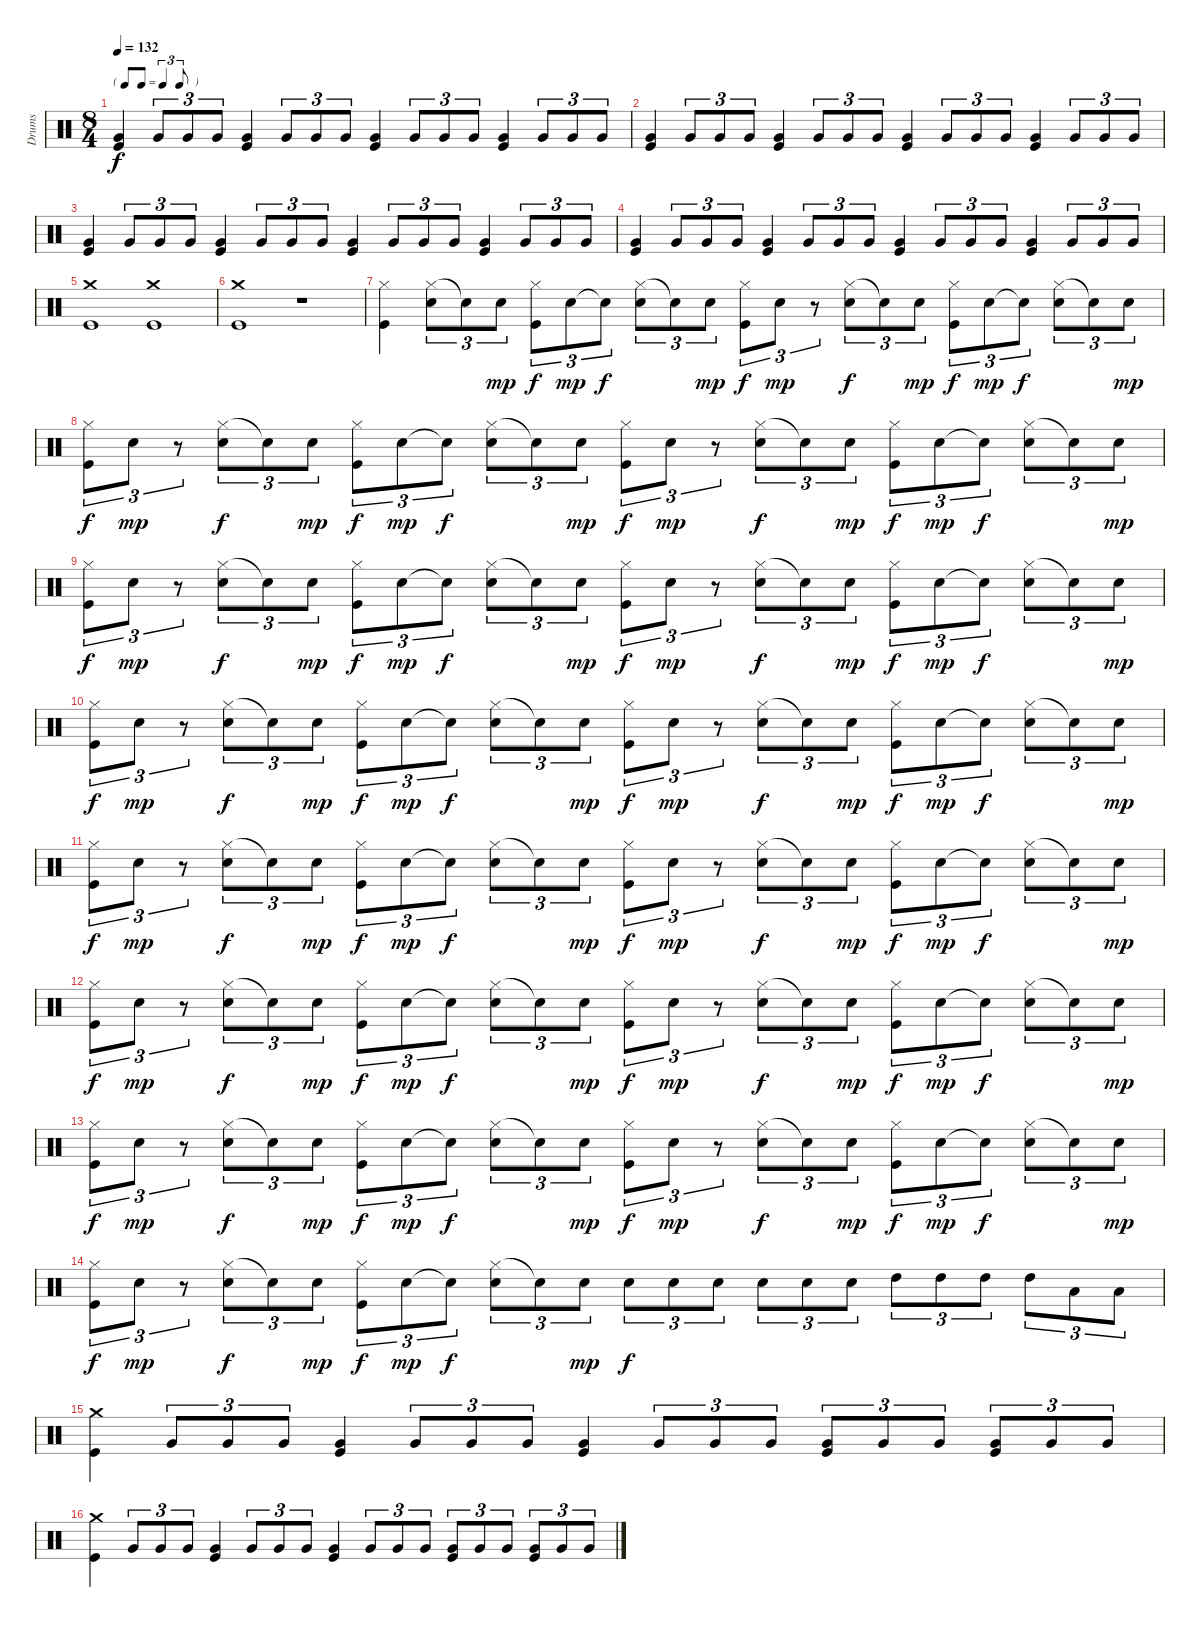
\track ("Drums" "Drums") {instrument percussion}
\staff {score}
\articulation defaults
\ts (8 4)
\tf triplet8th
\tempo 132
\clef neutral
\ks c
("Very Low Tom (hit)" "Kick (hit)").4{dy f} "Very Low Tom (hit)".8{tu (3 2)} "Very Low Tom (hit)".8{tu (3 2)} "Very Low Tom (hit)".8{tu (3 2)} ("Very Low Tom (hit)" "Kick (hit)").4 "Very Low Tom (hit)".8{tu (3 2)} "Very Low Tom (hit)".8{tu (3 2)} "Very Low Tom (hit)".8{tu (3 2)} ("Very Low Tom (hit)" "Kick (hit)").4 "Very Low Tom (hit)".8{tu (3 2)} "Very Low Tom (hit)".8{tu (3 2)} "Very Low Tom (hit)".8{tu (3 2)} ("Very Low Tom (hit)" "Kick (hit)").4 "Very Low Tom (hit)".8{tu (3 2)} "Very Low Tom (hit)".8{tu (3 2)} "Very Low Tom (hit)".8{tu (3 2)} |
("Very Low Tom (hit)" "Kick (hit)").4 "Very Low Tom (hit)".8{tu (3 2)} "Very Low Tom (hit)".8{tu (3 2)} "Very Low Tom (hit)".8{tu (3 2)} ("Very Low Tom (hit)" "Kick (hit)").4 "Very Low Tom (hit)".8{tu (3 2)} "Very Low Tom (hit)".8{tu (3 2)} "Very Low Tom (hit)".8{tu (3 2)} ("Very Low Tom (hit)" "Kick (hit)").4 "Very Low Tom (hit)".8{tu (3 2)} "Very Low Tom (hit)".8{tu (3 2)} "Very Low Tom (hit)".8{tu (3 2)} ("Very Low Tom (hit)" "Kick (hit)").4 "Very Low Tom (hit)".8{tu (3 2)} "Very Low Tom (hit)".8{tu (3 2)} "Very Low Tom (hit)".8{tu (3 2)} |
("Very Low Tom (hit)" "Kick (hit)").4 "Very Low Tom (hit)".8{tu (3 2)} "Very Low Tom (hit)".8{tu (3 2)} "Very Low Tom (hit)".8{tu (3 2)} ("Very Low Tom (hit)" "Kick (hit)").4 "Very Low Tom (hit)".8{tu (3 2)} "Very Low Tom (hit)".8{tu (3 2)} "Very Low Tom (hit)".8{tu (3 2)} ("Very Low Tom (hit)" "Kick (hit)").4 "Very Low Tom (hit)".8{tu (3 2)} "Very Low Tom (hit)".8{tu (3 2)} "Very Low Tom (hit)".8{tu (3 2)} ("Very Low Tom (hit)" "Kick (hit)").4 "Very Low Tom (hit)".8{tu (3 2)} "Very Low Tom (hit)".8{tu (3 2)} "Very Low Tom (hit)".8{tu (3 2)} |
("Very Low Tom (hit)" "Kick (hit)").4 "Very Low Tom (hit)".8{tu (3 2)} "Very Low Tom (hit)".8{tu (3 2)} "Very Low Tom (hit)".8{tu (3 2)} ("Very Low Tom (hit)" "Kick (hit)").4 "Very Low Tom (hit)".8{tu (3 2)} "Very Low Tom (hit)".8{tu (3 2)} "Very Low Tom (hit)".8{tu (3 2)} ("Very Low Tom (hit)" "Kick (hit)").4 "Very Low Tom (hit)".8{tu (3 2)} "Very Low Tom (hit)".8{tu (3 2)} "Very Low Tom (hit)".8{tu (3 2)} ("Very Low Tom (hit)" "Kick (hit)").4 "Very Low Tom (hit)".8{tu (3 2)} "Very Low Tom (hit)".8{tu (3 2)} "Very Low Tom (hit)".8{tu (3 2)} |
("Crash medium (hit)" "Kick (hit)").1 ("Crash medium (hit)" "Kick (hit)").1 |
("Crash medium (hit)" "Kick (hit)").1 r.1 |
("Hi-Hat (closed)" "Kick (hit)").4 ("Hi-Hat (closed)" "Electric Snare (hit)").8{tu (3 2)} "Snare (hit)"{t}.8{tu (3 2)} "Electric Snare (hit)".8{tu (3 2) dy mp} ("Hi-Hat (closed)" "Kick (hit)").8{tu (3 2) dy f} "Electric Snare (hit)".8{tu (3 2) dy mp} "Snare (hit)"{t}.8{tu (3 2) dy f} ("Hi-Hat (closed)" "Electric Snare (hit)").8{tu (3 2)} "Snare (hit)"{t}.8{tu (3 2)} "Electric Snare (hit)".8{tu (3 2) dy mp} ("Hi-Hat (closed)" "Kick (hit)").8{tu (3 2) dy f} "Electric Snare (hit)".8{tu (3 2) dy mp} r.8{tu (3 2)} ("Hi-Hat (closed)" "Electric Snare (hit)").8{tu (3 2) dy f} "Snare (hit)"{t}.8{tu (3 2)} "Electric Snare (hit)".8{tu (3 2) dy mp} ("Hi-Hat (closed)" "Kick (hit)").8{tu (3 2) dy f} "Electric Snare (hit)".8{tu (3 2) dy mp} "Snare (hit)"{t}.8{tu (3 2) dy f} ("Hi-Hat (closed)" "Electric Snare (hit)").8{tu (3 2)} "Snare (hit)"{t}.8{tu (3 2)} "Electric Snare (hit)".8{tu (3 2) dy mp} |
("Hi-Hat (closed)" "Kick (hit)").8{tu (3 2) dy f} "Electric Snare (hit)".8{tu (3 2) dy mp} r.8{tu (3 2)} ("Hi-Hat (closed)" "Electric Snare (hit)").8{tu (3 2) dy f} "Snare (hit)"{t}.8{tu (3 2)} "Electric Snare (hit)".8{tu (3 2) dy mp} ("Hi-Hat (closed)" "Kick (hit)").8{tu (3 2) dy f} "Electric Snare (hit)".8{tu (3 2) dy mp} "Snare (hit)"{t}.8{tu (3 2) dy f} ("Hi-Hat (closed)" "Electric Snare (hit)").8{tu (3 2)} "Snare (hit)"{t}.8{tu (3 2)} "Electric Snare (hit)".8{tu (3 2) dy mp} ("Hi-Hat (closed)" "Kick (hit)").8{tu (3 2) dy f} "Electric Snare (hit)".8{tu (3 2) dy mp} r.8{tu (3 2)} ("Hi-Hat (closed)" "Electric Snare (hit)").8{tu (3 2) dy f} "Snare (hit)"{t}.8{tu (3 2)} "Electric Snare (hit)".8{tu (3 2) dy mp} ("Hi-Hat (closed)" "Kick (hit)").8{tu (3 2) dy f} "Electric Snare (hit)".8{tu (3 2) dy mp} "Snare (hit)"{t}.8{tu (3 2) dy f} ("Hi-Hat (closed)" "Electric Snare (hit)").8{tu (3 2)} "Snare (hit)"{t}.8{tu (3 2)} "Electric Snare (hit)".8{tu (3 2) dy mp} |
("Hi-Hat (closed)" "Kick (hit)").8{tu (3 2) dy f} "Electric Snare (hit)".8{tu (3 2) dy mp} r.8{tu (3 2)} ("Hi-Hat (closed)" "Electric Snare (hit)").8{tu (3 2) dy f} "Snare (hit)"{t}.8{tu (3 2)} "Electric Snare (hit)".8{tu (3 2) dy mp} ("Hi-Hat (closed)" "Kick (hit)").8{tu (3 2) dy f} "Electric Snare (hit)".8{tu (3 2) dy mp} "Snare (hit)"{t}.8{tu (3 2) dy f} ("Hi-Hat (closed)" "Electric Snare (hit)").8{tu (3 2)} "Snare (hit)"{t}.8{tu (3 2)} "Electric Snare (hit)".8{tu (3 2) dy mp} ("Hi-Hat (closed)" "Kick (hit)").8{tu (3 2) dy f} "Electric Snare (hit)".8{tu (3 2) dy mp} r.8{tu (3 2)} ("Hi-Hat (closed)" "Electric Snare (hit)").8{tu (3 2) dy f} "Snare (hit)"{t}.8{tu (3 2)} "Electric Snare (hit)".8{tu (3 2) dy mp} ("Hi-Hat (closed)" "Kick (hit)").8{tu (3 2) dy f} "Electric Snare (hit)".8{tu (3 2) dy mp} "Snare (hit)"{t}.8{tu (3 2) dy f} ("Hi-Hat (closed)" "Electric Snare (hit)").8{tu (3 2)} "Snare (hit)"{t}.8{tu (3 2)} "Electric Snare (hit)".8{tu (3 2) dy mp} |
("Hi-Hat (closed)" "Kick (hit)").8{tu (3 2) dy f} "Electric Snare (hit)".8{tu (3 2) dy mp} r.8{tu (3 2)} ("Hi-Hat (closed)" "Electric Snare (hit)").8{tu (3 2) dy f} "Snare (hit)"{t}.8{tu (3 2)} "Electric Snare (hit)".8{tu (3 2) dy mp} ("Hi-Hat (closed)" "Kick (hit)").8{tu (3 2) dy f} "Electric Snare (hit)".8{tu (3 2) dy mp} "Snare (hit)"{t}.8{tu (3 2) dy f} ("Hi-Hat (closed)" "Electric Snare (hit)").8{tu (3 2)} "Snare (hit)"{t}.8{tu (3 2)} "Electric Snare (hit)".8{tu (3 2) dy mp} ("Hi-Hat (closed)" "Kick (hit)").8{tu (3 2) dy f} "Electric Snare (hit)".8{tu (3 2) dy mp} r.8{tu (3 2)} ("Hi-Hat (closed)" "Electric Snare (hit)").8{tu (3 2) dy f} "Snare (hit)"{t}.8{tu (3 2)} "Electric Snare (hit)".8{tu (3 2) dy mp} ("Hi-Hat (closed)" "Kick (hit)").8{tu (3 2) dy f} "Electric Snare (hit)".8{tu (3 2) dy mp} "Snare (hit)"{t}.8{tu (3 2) dy f} ("Hi-Hat (closed)" "Electric Snare (hit)").8{tu (3 2)} "Snare (hit)"{t}.8{tu (3 2)} "Electric Snare (hit)".8{tu (3 2) dy mp} |
("Hi-Hat (closed)" "Kick (hit)").8{tu (3 2) dy f} "Electric Snare (hit)".8{tu (3 2) dy mp} r.8{tu (3 2)} ("Hi-Hat (closed)" "Electric Snare (hit)").8{tu (3 2) dy f} "Snare (hit)"{t}.8{tu (3 2)} "Electric Snare (hit)".8{tu (3 2) dy mp} ("Hi-Hat (closed)" "Kick (hit)").8{tu (3 2) dy f} "Electric Snare (hit)".8{tu (3 2) dy mp} "Snare (hit)"{t}.8{tu (3 2) dy f} ("Hi-Hat (closed)" "Electric Snare (hit)").8{tu (3 2)} "Snare (hit)"{t}.8{tu (3 2)} "Electric Snare (hit)".8{tu (3 2) dy mp} ("Hi-Hat (closed)" "Kick (hit)").8{tu (3 2) dy f} "Electric Snare (hit)".8{tu (3 2) dy mp} r.8{tu (3 2)} ("Hi-Hat (closed)" "Electric Snare (hit)").8{tu (3 2) dy f} "Snare (hit)"{t}.8{tu (3 2)} "Electric Snare (hit)".8{tu (3 2) dy mp} ("Hi-Hat (closed)" "Kick (hit)").8{tu (3 2) dy f} "Electric Snare (hit)".8{tu (3 2) dy mp} "Snare (hit)"{t}.8{tu (3 2) dy f} ("Hi-Hat (closed)" "Electric Snare (hit)").8{tu (3 2)} "Snare (hit)"{t}.8{tu (3 2)} "Electric Snare (hit)".8{tu (3 2) dy mp} |
("Hi-Hat (closed)" "Kick (hit)").8{tu (3 2) dy f} "Electric Snare (hit)".8{tu (3 2) dy mp} r.8{tu (3 2)} ("Hi-Hat (closed)" "Electric Snare (hit)").8{tu (3 2) dy f} "Snare (hit)"{t}.8{tu (3 2)} "Electric Snare (hit)".8{tu (3 2) dy mp} ("Hi-Hat (closed)" "Kick (hit)").8{tu (3 2) dy f} "Electric Snare (hit)".8{tu (3 2) dy mp} "Snare (hit)"{t}.8{tu (3 2) dy f} ("Hi-Hat (closed)" "Electric Snare (hit)").8{tu (3 2)} "Snare (hit)"{t}.8{tu (3 2)} "Electric Snare (hit)".8{tu (3 2) dy mp} ("Hi-Hat (closed)" "Kick (hit)").8{tu (3 2) dy f} "Electric Snare (hit)".8{tu (3 2) dy mp} r.8{tu (3 2)} ("Hi-Hat (closed)" "Electric Snare (hit)").8{tu (3 2) dy f} "Snare (hit)"{t}.8{tu (3 2)} "Electric Snare (hit)".8{tu (3 2) dy mp} ("Hi-Hat (closed)" "Kick (hit)").8{tu (3 2) dy f} "Electric Snare (hit)".8{tu (3 2) dy mp} "Snare (hit)"{t}.8{tu (3 2) dy f} ("Hi-Hat (closed)" "Electric Snare (hit)").8{tu (3 2)} "Snare (hit)"{t}.8{tu (3 2)} "Electric Snare (hit)".8{tu (3 2) dy mp} |
("Hi-Hat (closed)" "Kick (hit)").8{tu (3 2) dy f} "Electric Snare (hit)".8{tu (3 2) dy mp} r.8{tu (3 2)} ("Hi-Hat (closed)" "Electric Snare (hit)").8{tu (3 2) dy f} "Snare (hit)"{t}.8{tu (3 2)} "Electric Snare (hit)".8{tu (3 2) dy mp} ("Hi-Hat (closed)" "Kick (hit)").8{tu (3 2) dy f} "Electric Snare (hit)".8{tu (3 2) dy mp} "Snare (hit)"{t}.8{tu (3 2) dy f} ("Hi-Hat (closed)" "Electric Snare (hit)").8{tu (3 2)} "Snare (hit)"{t}.8{tu (3 2)} "Electric Snare (hit)".8{tu (3 2) dy mp} ("Hi-Hat (closed)" "Kick (hit)").8{tu (3 2) dy f} "Electric Snare (hit)".8{tu (3 2) dy mp} r.8{tu (3 2)} ("Hi-Hat (closed)" "Electric Snare (hit)").8{tu (3 2) dy f} "Snare (hit)"{t}.8{tu (3 2)} "Electric Snare (hit)".8{tu (3 2) dy mp} ("Hi-Hat (closed)" "Kick (hit)").8{tu (3 2) dy f} "Electric Snare (hit)".8{tu (3 2) dy mp} "Snare (hit)"{t}.8{tu (3 2) dy f} ("Hi-Hat (closed)" "Electric Snare (hit)").8{tu (3 2)} "Snare (hit)"{t}.8{tu (3 2)} "Electric Snare (hit)".8{tu (3 2) dy mp} |
("Hi-Hat (closed)" "Kick (hit)").8{tu (3 2) dy f} "Electric Snare (hit)".8{tu (3 2) dy mp} r.8{tu (3 2)} ("Hi-Hat (closed)" "Electric Snare (hit)").8{tu (3 2) dy f} "Snare (hit)"{t}.8{tu (3 2)} "Electric Snare (hit)".8{tu (3 2) dy mp} ("Hi-Hat (closed)" "Kick (hit)").8{tu (3 2) dy f} "Electric Snare (hit)".8{tu (3 2) dy mp} "Snare (hit)"{t}.8{tu (3 2) dy f} ("Hi-Hat (closed)" "Electric Snare (hit)").8{tu (3 2)} "Snare (hit)"{t}.8{tu (3 2)} "Electric Snare (hit)".8{tu (3 2) dy mp} "Electric Snare (hit)".8{tu (3 2) dy f} "Electric Snare (hit)".8{tu (3 2)} "Electric Snare (hit)".8{tu (3 2)} "Electric Snare (hit)".8{tu (3 2)} "Electric Snare (hit)".8{tu (3 2)} "Electric Snare (hit)".8{tu (3 2)} "High Tom (hit)".8{tu (3 2)} "High Tom (hit)".8{tu (3 2)} "High Tom (hit)".8{tu (3 2)} "High Tom (hit)".8{tu (3 2)} "Low Tom (hit)".8{tu (3 2)} "Low Tom (hit)".8{tu (3 2)} |
("Crash medium (hit)" "Kick (hit)").4 "Very Low Tom (hit)".8{tu (3 2)} "Very Low Tom (hit)".8{tu (3 2)} "Very Low Tom (hit)".8{tu (3 2)} ("Very Low Tom (hit)" "Kick (hit)").4 "Very Low Tom (hit)".8{tu (3 2)} "Very Low Tom (hit)".8{tu (3 2)} "Very Low Tom (hit)".8{tu (3 2)} ("Very Low Tom (hit)" "Kick (hit)").4 "Very Low Tom (hit)".8{tu (3 2)} "Very Low Tom (hit)".8{tu (3 2)} "Very Low Tom (hit)".8{tu (3 2)} ("Very Low Tom (hit)" "Kick (hit)").8{tu (3 2)} "Very Low Tom (hit)".8{tu (3 2)} "Very Low Tom (hit)".8{tu (3 2)} ("Very Low Tom (hit)" "Kick (hit)").8{tu (3 2)} "Very Low Tom (hit)".8{tu (3 2)} "Very Low Tom (hit)".8{tu (3 2)} |
("Crash medium (hit)" "Kick (hit)").4 "Very Low Tom (hit)".8{tu (3 2)} "Very Low Tom (hit)".8{tu (3 2)} "Very Low Tom (hit)".8{tu (3 2)} ("Very Low Tom (hit)" "Kick (hit)").4 "Very Low Tom (hit)".8{tu (3 2)} "Very Low Tom (hit)".8{tu (3 2)} "Very Low Tom (hit)".8{tu (3 2)} ("Very Low Tom (hit)" "Kick (hit)").4 "Very Low Tom (hit)".8{tu (3 2)} "Very Low Tom (hit)".8{tu (3 2)} "Very Low Tom (hit)".8{tu (3 2)} ("Very Low Tom (hit)" "Kick (hit)").8{tu (3 2)} "Very Low Tom (hit)".8{tu (3 2)} "Very Low Tom (hit)".8{tu (3 2)} ("Very Low Tom (hit)" "Kick (hit)").8{tu (3 2)} "Very Low Tom (hit)".8{tu (3 2)} "Very Low Tom (hit)".8{tu (3 2)}
